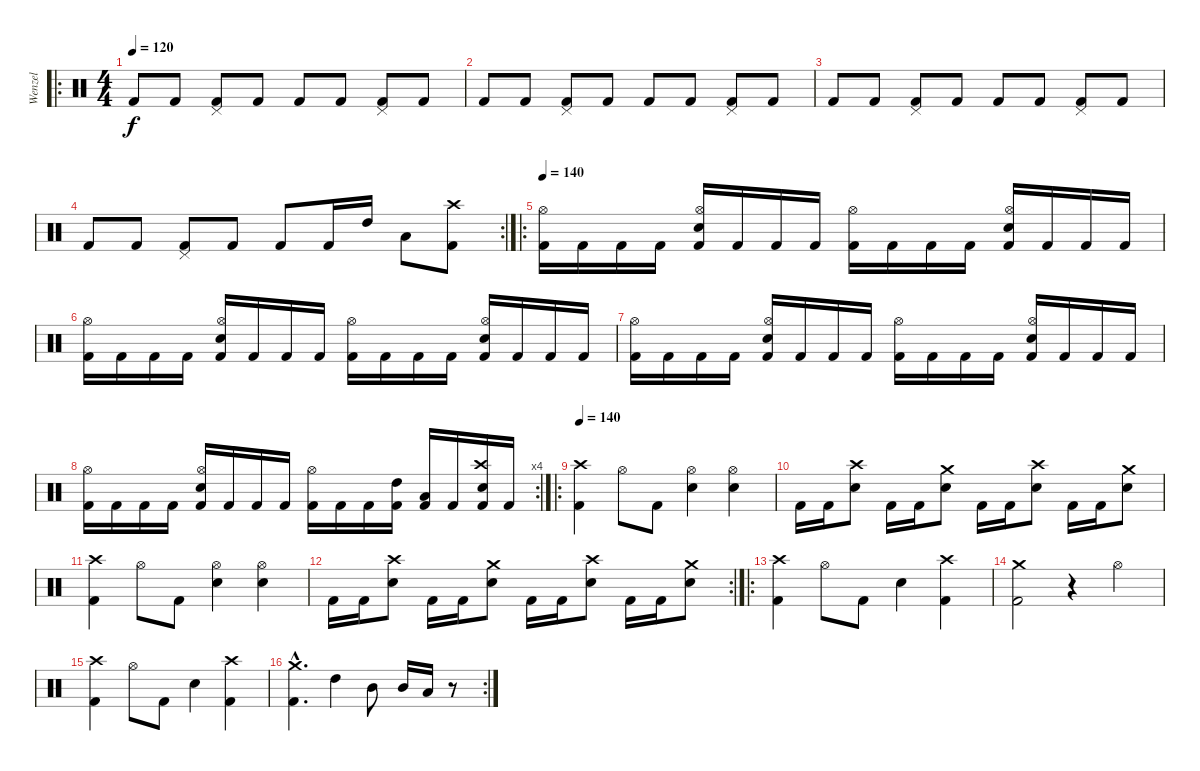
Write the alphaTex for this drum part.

\track ("Wenzel" "Wenzel") {instrument percussion}
\staff {score}
\articulation defaults
\ro
\ts (4 4)
\tempo 120
\tempo 100
\tempo 120
\clef neutral
\ks c "Kick (hit) 2".8{dy f} "Kick (hit) 2".8
("Pedal Hi-Hat (hit)" "Kick (hit) 2").8 "Kick (hit) 2".8 "Kick (hit) 2".8 "Kick (hit) 2".8 ("Pedal Hi-Hat (hit)" "Kick (hit) 2").8 "Kick (hit) 2".8 |
"Kick (hit) 2".8 "Kick (hit) 2".8 ("Pedal Hi-Hat (hit)" "Kick (hit) 2").8 "Kick (hit) 2".8 "Kick (hit) 2".8 "Kick (hit) 2".8 ("Pedal Hi-Hat (hit)" "Kick (hit) 2").8 "Kick (hit) 2".8 |
"Kick (hit) 2".8 "Kick (hit) 2".8 ("Pedal Hi-Hat (hit)" "Kick (hit) 2").8 "Kick (hit) 2".8 "Kick (hit) 2".8 "Kick (hit) 2".8 ("Pedal Hi-Hat (hit)" "Kick (hit) 2").8 "Kick (hit) 2".8 |
\rc 2 "Kick (hit) 2".8 "Kick (hit) 2".8
("Pedal Hi-Hat (hit)" "Kick (hit) 2").8 "Kick (hit) 2".8 "Kick (hit) 2".8 "Kick (hit) 2".16 "High Tom (hit)".16 "Low Tom (hit)".8 ("Crash high (hit)" "Kick (hit) 2").8 |
\ro
\tempo 180
\tempo 140
("Hi-Hat (open)" "Kick (hit) 2").16 "Kick (hit) 2".16 "Kick (hit) 2".16 "Kick (hit) 2".16 ("Hi-Hat (open)" "Snare (hit) 2" "Kick (hit) 2").16 "Kick (hit) 2".16 "Kick (hit) 2".16 "Kick (hit) 2".16 ("Hi-Hat (open)" "Kick (hit) 2").16 "Kick (hit) 2".16 "Kick (hit) 2".16 "Kick (hit) 2".16 ("Hi-Hat (open)" "Snare (hit) 2" "Kick (hit) 2").16 "Kick (hit) 2".16 "Kick (hit) 2".16 "Kick (hit) 2".16 |
("Hi-Hat (open)" "Kick (hit) 2").16 "Kick (hit) 2".16 "Kick (hit) 2".16 "Kick (hit) 2".16 ("Hi-Hat (open)" "Snare (hit) 2" "Kick (hit) 2").16 "Kick (hit) 2".16 "Kick (hit) 2".16 "Kick (hit) 2".16 ("Hi-Hat (open)" "Kick (hit) 2").16 "Kick (hit) 2".16 "Kick (hit) 2".16 "Kick (hit) 2".16 ("Hi-Hat (open)" "Snare (hit) 2" "Kick (hit) 2").16 "Kick (hit) 2".16 "Kick (hit) 2".16 "Kick (hit) 2".16 |
("Hi-Hat (open)" "Kick (hit) 2").16 "Kick (hit) 2".16 "Kick (hit) 2".16 "Kick (hit) 2".16 ("Hi-Hat (open)" "Snare (hit) 2" "Kick (hit) 2").16 "Kick (hit) 2".16 "Kick (hit) 2".16 "Kick (hit) 2".16 ("Hi-Hat (open)" "Kick (hit) 2").16 "Kick (hit) 2".16 "Kick (hit) 2".16 "Kick (hit) 2".16 ("Hi-Hat (open)" "Snare (hit) 2" "Kick (hit) 2").16 "Kick (hit) 2".16 "Kick (hit) 2".16 "Kick (hit) 2".16 |
\rc 4
("Hi-Hat (open)" "Kick (hit) 2").16 "Kick (hit) 2".16 "Kick (hit) 2".16 "Kick (hit) 2".16 ("Hi-Hat (open)" "Snare (hit) 2" "Kick (hit) 2").16 "Kick (hit) 2".16 "Kick (hit) 2".16 "Kick (hit) 2".16 ("Hi-Hat (open)" "Kick (hit) 2").16 "Kick (hit) 2".16 "Kick (hit) 2".16 ("High Tom (hit)" "Kick (hit) 2").16 ("Low Tom (hit)" "Kick (hit) 2").16 "Kick (hit) 2".16 ("Crash high (hit)" "Snare (hit) 2" "Kick (hit) 2").16 "Kick (hit) 2".16 |
\ro
\tempo 140
("Crash high (hit)" "Kick (hit) 2").4 "Hi-Hat (open)".8 "Kick (hit) 2".8 ("Hi-Hat (open)" "Snare (hit) 2").4 ("Hi-Hat (open)" "Snare (hit) 2").4 |
"Kick (hit) 2".16 "Kick (hit) 2".16 ("Crash high (hit)" "Snare (hit) 2").8 "Kick (hit) 2".16 "Kick (hit) 2".16 ("Crash medium (hit)" "Snare (hit) 2").8 "Kick (hit) 2".16 "Kick (hit) 2".16 ("Crash high (hit)" "Snare (hit) 2").8 "Kick (hit) 2".16 "Kick (hit) 2".16 ("Crash medium (hit)" "Snare (hit) 2").8 |
("Crash high (hit)" "Kick (hit) 2").4 "Hi-Hat (open)".8 "Kick (hit) 2".8 ("Hi-Hat (open)" "Snare (hit) 2").4 ("Hi-Hat (open)" "Snare (hit) 2").4 |
\rc 2 "Kick (hit) 2".16 "Kick (hit) 2".16
("Crash high (hit)" "Snare (hit) 2").8 "Kick (hit) 2".16 "Kick (hit) 2".16 ("Crash medium (hit)" "Snare (hit) 2").8 "Kick (hit) 2".16 "Kick (hit) 2".16 ("Crash high (hit)" "Snare (hit) 2").8 "Kick (hit) 2".16 "Kick (hit) 2".16 ("Crash medium (hit)" "Snare (hit) 2").8 |
\ro
("Crash high (hit)" "Kick (hit) 2").4 "Hi-Hat (open)".8 "Kick (hit) 2".8 "Snare (hit) 2".4 ("Crash high (hit)" "Kick (hit) 2").4 |
("Crash medium (hit)" "Kick (hit) 2").2 r.4 "Hi-Hat (open)".4 |
("Crash high (hit)" "Kick (hit) 2").4 "Hi-Hat (open)".8 "Kick (hit) 2".8 "Snare (hit) 2".4 ("Crash high (hit)" "Kick (hit) 2").4 |
\rc 2
("Crash medium (hit)"{hac} "Kick (hit) 2"{hac}).4{d} "High Tom (hit)".4 "Mid Tom (hit)".8 "Mid Tom (hit)".16 "Low Tom (hit)".16 r.8
